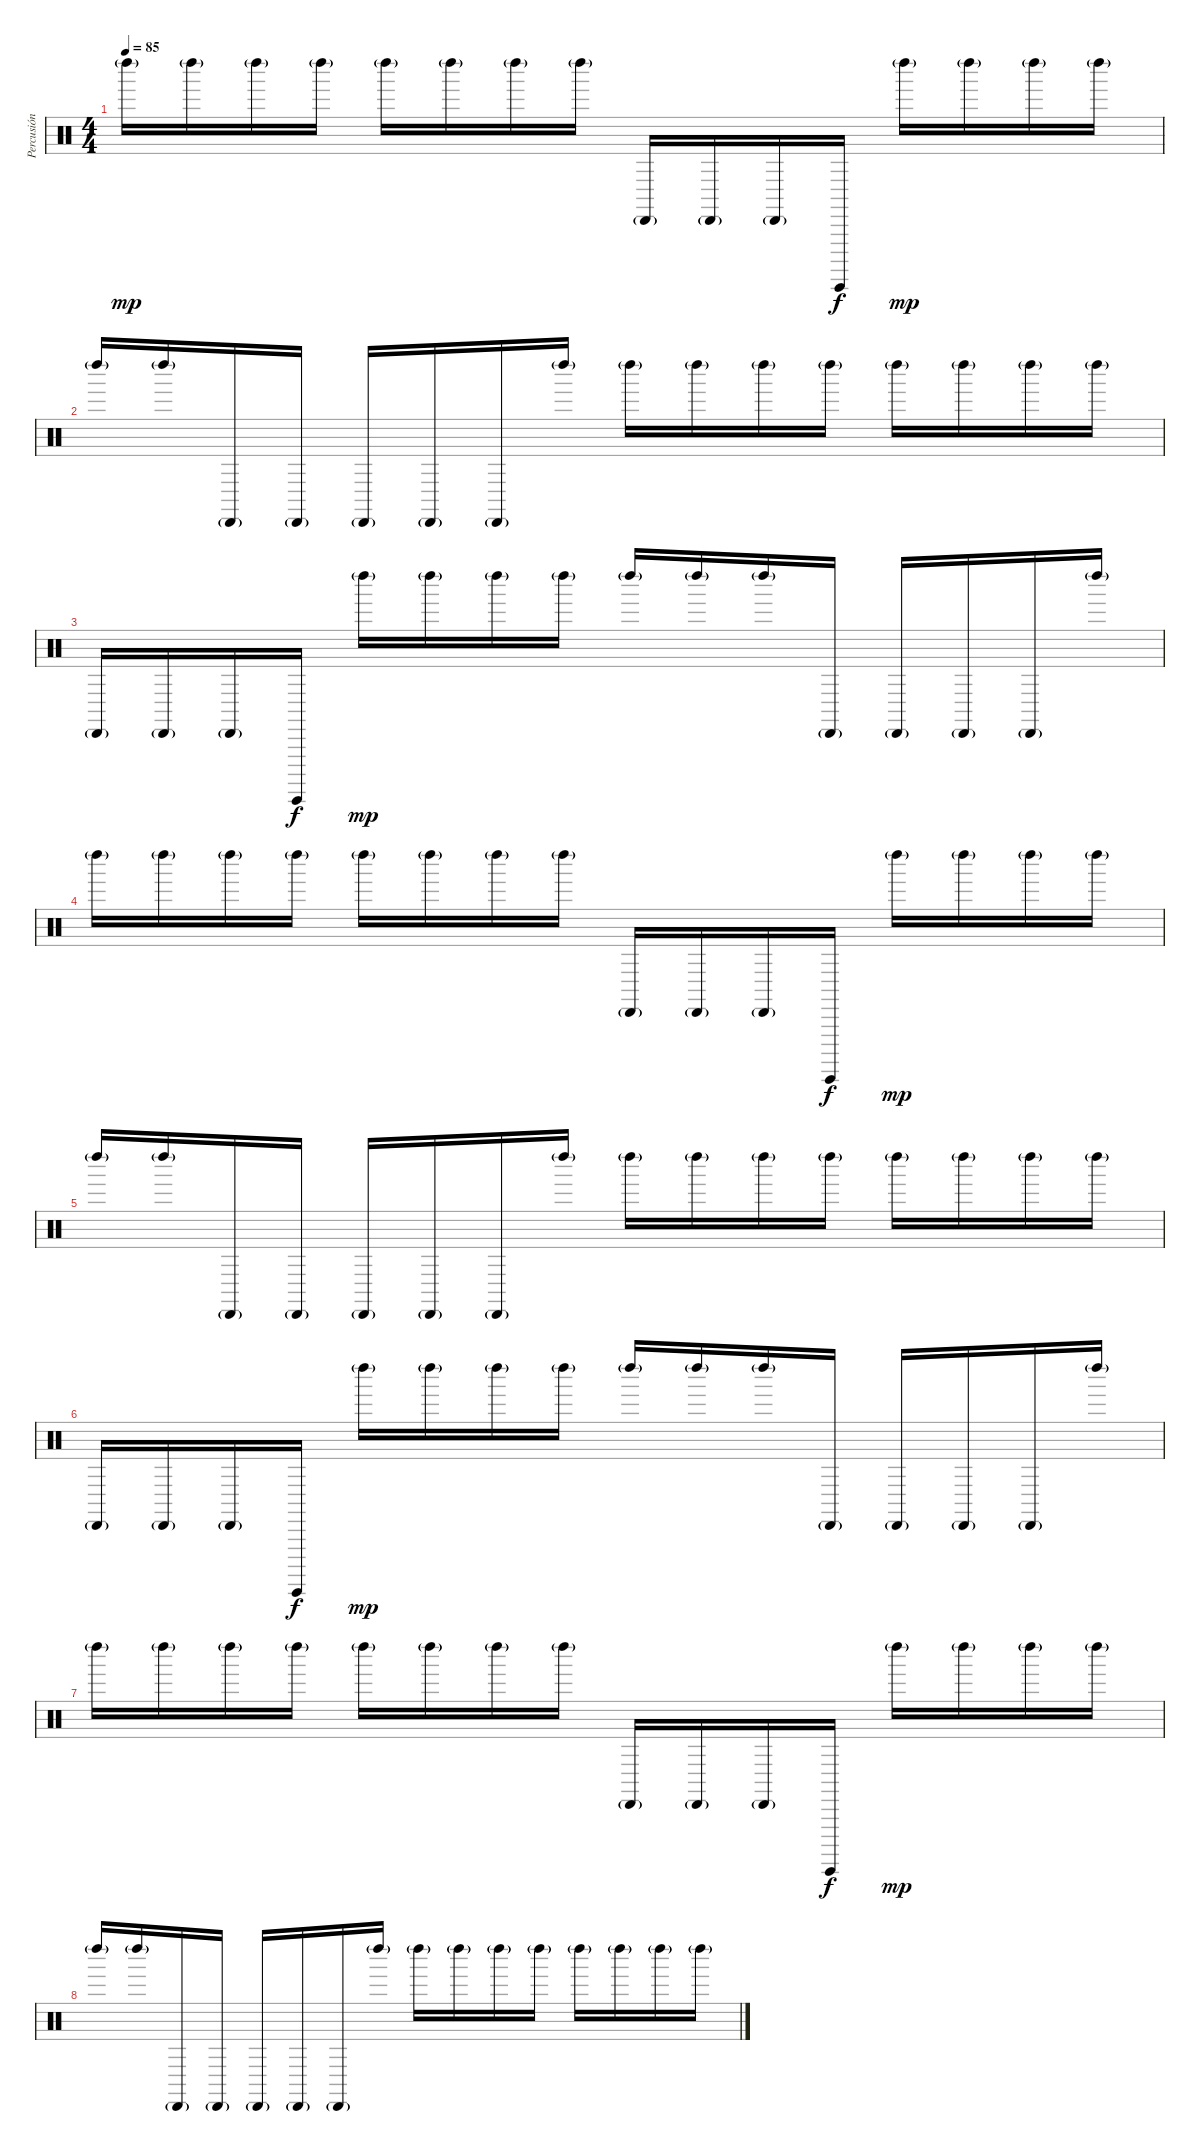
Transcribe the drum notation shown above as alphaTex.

\track ("Percusión" "Percusión") {instrument percussion}
\staff {score}
\articulation defaults
\ts (4 4)
\tempo 85
\clef neutral
\ks c "Left Maraca (hit)"{g}.16{dy mp} "Left Maraca (hit)"{g}.16 "Left Maraca (hit)"{g}.16 "Left Maraca (hit)"{g}.16 "Left Maraca (hit)"{g}.16 "Left Maraca (hit)"{g}.16 "Left Maraca (hit)"{g}.16 "Left Maraca (hit)"{g}.16 "Cabasa (hit)"{g}.16 "Cabasa (hit)"{g}.16 "Cabasa (hit)"{g}.16 "Guiro (hit)".16{dy f} "Left Maraca (hit)"{g}.16{dy mp} "Left Maraca (hit)"{g}.16 "Left Maraca (hit)"{g}.16 "Left Maraca (hit)"{g}.16
|
"Left Maraca (hit)"{g}.16 "Left Maraca (hit)"{g}.16 "Cabasa (hit)"{g}.16 "Cabasa (hit)"{g}.16 "Cabasa (hit)"{g}.16 "Cabasa (hit)"{g}.16 "Cabasa (hit)"{g}.16 "Left Maraca (hit)"{g}.16 "Left Maraca (hit)"{g}.16 "Left Maraca (hit)"{g}.16 "Left Maraca (hit)"{g}.16 "Left Maraca (hit)"{g}.16 "Left Maraca (hit)"{g}.16 "Left Maraca (hit)"{g}.16 "Left Maraca (hit)"{g}.16 "Left Maraca (hit)"{g}.16 |
"Cabasa (hit)"{g}.16 "Cabasa (hit)"{g}.16 "Cabasa (hit)"{g}.16 "Guiro (hit)".16{dy f} "Left Maraca (hit)"{g}.16{dy mp} "Left Maraca (hit)"{g}.16 "Left Maraca (hit)"{g}.16 "Left Maraca (hit)"{g}.16 "Left Maraca (hit)"{g}.16 "Left Maraca (hit)"{g}.16 "Left Maraca (hit)"{g}.16 "Cabasa (hit)"{g}.16 "Cabasa (hit)"{g}.16 "Cabasa (hit)"{g}.16 "Cabasa (hit)"{g}.16 "Left Maraca (hit)"{g}.16 |
"Left Maraca (hit)"{g}.16 "Left Maraca (hit)"{g}.16 "Left Maraca (hit)"{g}.16 "Left Maraca (hit)"{g}.16 "Left Maraca (hit)"{g}.16 "Left Maraca (hit)"{g}.16 "Left Maraca (hit)"{g}.16 "Left Maraca (hit)"{g}.16 "Cabasa (hit)"{g}.16 "Cabasa (hit)"{g}.16 "Cabasa (hit)"{g}.16 "Guiro (hit)".16{dy f} "Left Maraca (hit)"{g}.16{dy mp} "Left Maraca (hit)"{g}.16 "Left Maraca (hit)"{g}.16 "Left Maraca (hit)"{g}.16 |
"Left Maraca (hit)"{g}.16 "Left Maraca (hit)"{g}.16 "Cabasa (hit)"{g}.16 "Cabasa (hit)"{g}.16 "Cabasa (hit)"{g}.16 "Cabasa (hit)"{g}.16 "Cabasa (hit)"{g}.16 "Left Maraca (hit)"{g}.16 "Left Maraca (hit)"{g}.16 "Left Maraca (hit)"{g}.16 "Left Maraca (hit)"{g}.16 "Left Maraca (hit)"{g}.16 "Left Maraca (hit)"{g}.16 "Left Maraca (hit)"{g}.16 "Left Maraca (hit)"{g}.16 "Left Maraca (hit)"{g}.16 |
"Cabasa (hit)"{g}.16 "Cabasa (hit)"{g}.16 "Cabasa (hit)"{g}.16 "Guiro (hit)".16{dy f} "Left Maraca (hit)"{g}.16{dy mp} "Left Maraca (hit)"{g}.16 "Left Maraca (hit)"{g}.16 "Left Maraca (hit)"{g}.16 "Left Maraca (hit)"{g}.16 "Left Maraca (hit)"{g}.16 "Left Maraca (hit)"{g}.16 "Cabasa (hit)"{g}.16 "Cabasa (hit)"{g}.16 "Cabasa (hit)"{g}.16 "Cabasa (hit)"{g}.16 "Left Maraca (hit)"{g}.16 |
"Left Maraca (hit)"{g}.16 "Left Maraca (hit)"{g}.16 "Left Maraca (hit)"{g}.16 "Left Maraca (hit)"{g}.16 "Left Maraca (hit)"{g}.16 "Left Maraca (hit)"{g}.16 "Left Maraca (hit)"{g}.16 "Left Maraca (hit)"{g}.16 "Cabasa (hit)"{g}.16 "Cabasa (hit)"{g}.16 "Cabasa (hit)"{g}.16 "Guiro (hit)".16{dy f} "Left Maraca (hit)"{g}.16{dy mp} "Left Maraca (hit)"{g}.16 "Left Maraca (hit)"{g}.16 "Left Maraca (hit)"{g}.16 |
"Left Maraca (hit)"{g}.16 "Left Maraca (hit)"{g}.16 "Cabasa (hit)"{g}.16 "Cabasa (hit)"{g}.16 "Cabasa (hit)"{g}.16 "Cabasa (hit)"{g}.16 "Cabasa (hit)"{g}.16 "Left Maraca (hit)"{g}.16 "Left Maraca (hit)"{g}.16 "Left Maraca (hit)"{g}.16 "Left Maraca (hit)"{g}.16 "Left Maraca (hit)"{g}.16 "Left Maraca (hit)"{g}.16 "Left Maraca (hit)"{g}.16 "Left Maraca (hit)"{g}.16 "Left Maraca (hit)"{g}.16
